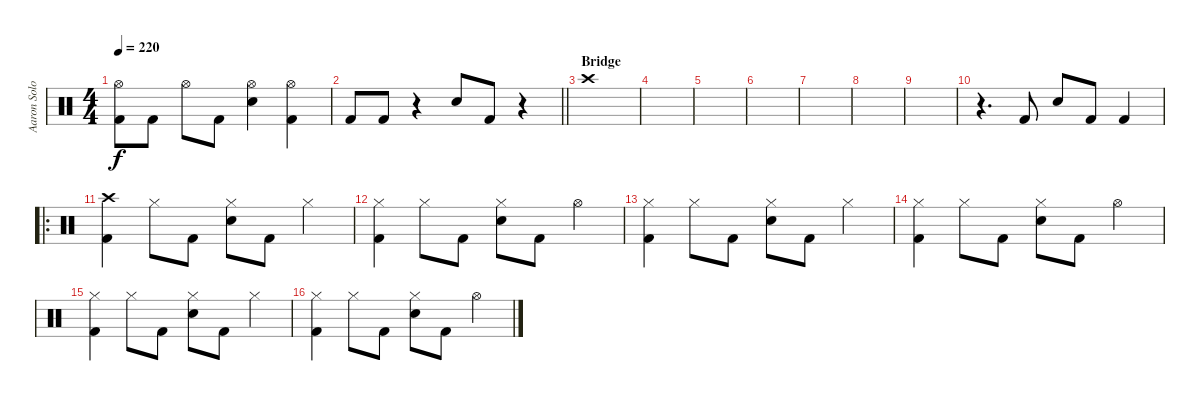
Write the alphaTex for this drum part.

\track ("Aaron Solowoniuk" "Aaron Solo") {instrument percussion}
\staff {score}
\articulation defaults
\ts (4 4)
\tempo 220
\clef neutral
\ks c
("Hi-Hat (open)" "Kick (hit) 2").8{dy f} "Kick (hit) 2".8 "Hi-Hat (open)".8 "Kick (hit) 2".8 ("Hi-Hat (open)" "Snare (hit) 2").4 ("Hi-Hat (open)" "Kick (hit) 2").4 |
\barLineRight lightlight "Kick (hit) 2".8 "Kick (hit) 2".8
r.4 "Snare (hit) 2".8 "Kick (hit) 2".8 r.4 |
\section ("" "Bridge")
"Crash high (hit)".1 |
|
|
|
|
|
|
r.4{d} "Kick (hit) 2".8 "Snare (hit) 2".8 "Kick (hit) 2".8 "Kick (hit) 2".4 |
\ro
("Crash high (hit)" "Kick (hit) 2").4 "Hi-Hat (closed)".8 "Kick (hit) 2".8 ("Hi-Hat (closed)" "Snare (hit) 2").8 "Kick (hit) 2".8 "Hi-Hat (closed)".4 |
("Hi-Hat (closed)" "Kick (hit) 2").4 "Hi-Hat (closed)".8 "Kick (hit) 2".8 ("Hi-Hat (closed)" "Snare (hit) 2").8 "Kick (hit) 2".8 "Hi-Hat (open)".4 |
("Hi-Hat (closed)" "Kick (hit) 2").4 "Hi-Hat (closed)".8 "Kick (hit) 2".8 ("Hi-Hat (closed)" "Snare (hit) 2").8 "Kick (hit) 2".8 "Hi-Hat (closed)".4 |
("Hi-Hat (closed)" "Kick (hit) 2").4 "Hi-Hat (closed)".8 "Kick (hit) 2".8 ("Hi-Hat (closed)" "Snare (hit) 2").8 "Kick (hit) 2".8 "Hi-Hat (open)".4 |
("Hi-Hat (closed)" "Kick (hit) 2").4 "Hi-Hat (closed)".8 "Kick (hit) 2".8 ("Hi-Hat (closed)" "Snare (hit) 2").8 "Kick (hit) 2".8 "Hi-Hat (closed)".4 |
("Hi-Hat (closed)" "Kick (hit) 2").4 "Hi-Hat (closed)".8 "Kick (hit) 2".8 ("Hi-Hat (closed)" "Snare (hit) 2").8 "Kick (hit) 2".8 "Hi-Hat (open)".4
